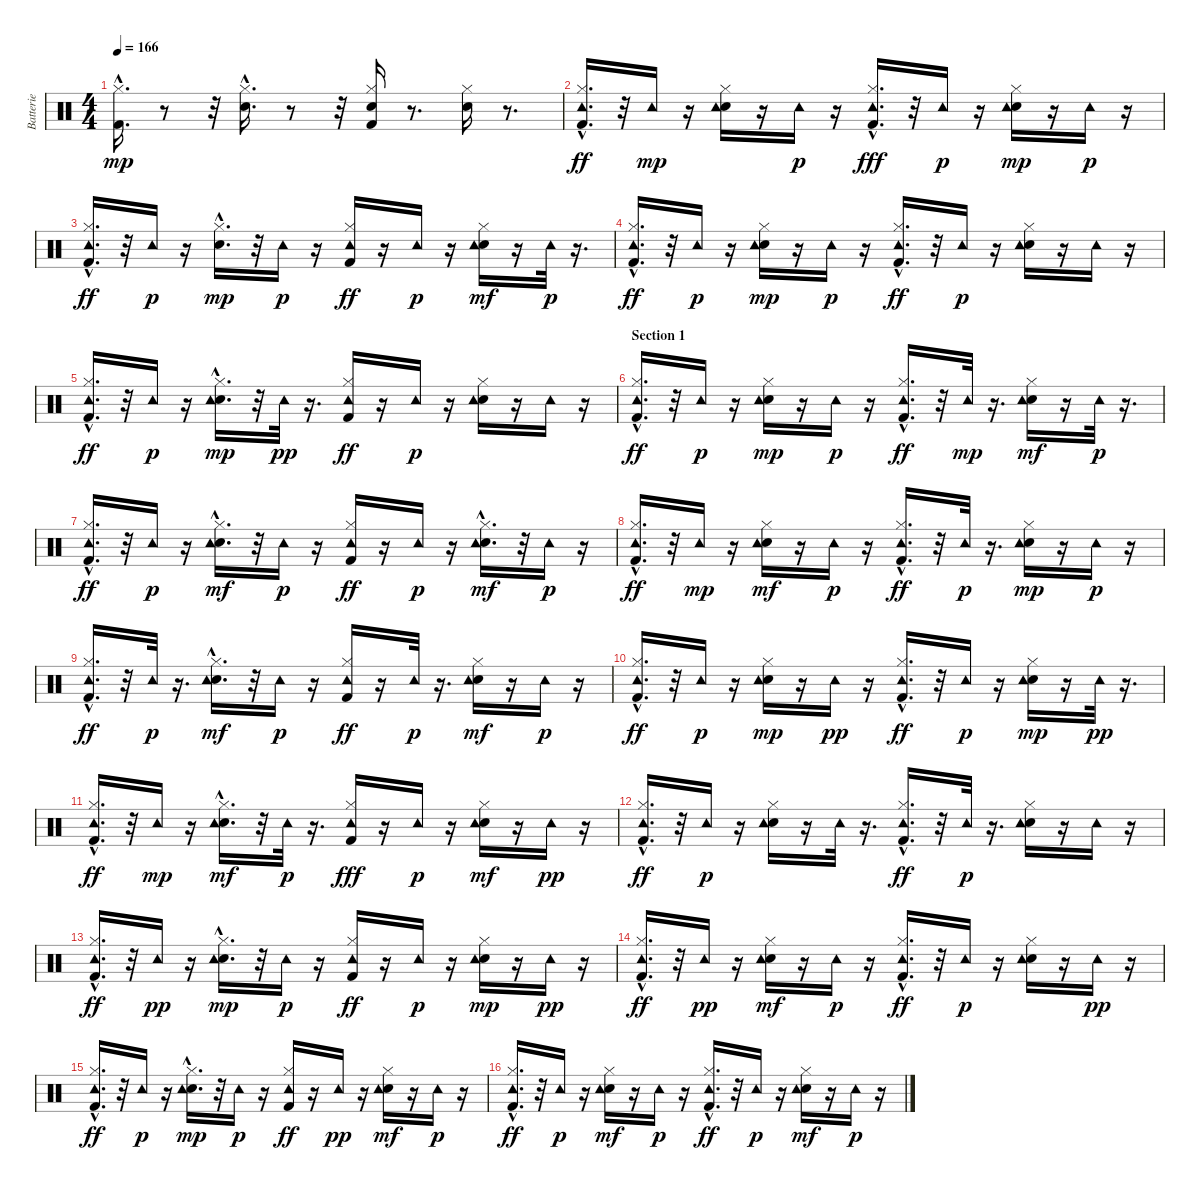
\track ("Batterie" "Batterie") {instrument percussion}
\staff {score}
\articulation defaults
\ts (4 4)
\tempo 166
\clef neutral
\ks c
("Kick (hit) 2"{hac} "Hi-Hat (closed)").16{d dy mp} r.8 r.32 ("Electric Snare (hit)" "Hi-Hat (closed)"{hac}).16{d} r.8 r.32 ("Kick (hit) 2" "Electric Snare (hit)" "Hi-Hat (closed)").16 r.8{d} ("Electric Snare (hit)" "Hi-Hat (closed)").16 r.8{d} |
("Kick (hit) 2"{hac} "Hi-Hat (closed)"{hac} "Tambourine (hit)").16{d dy ff} r.32 "Tambourine (hit)".16{dy mp} r.16 ("Electric Snare (hit)" "Hi-Hat (closed)" "Tambourine (hit)").16 r.16 "Tambourine (hit)".16{dy p} r.16 ("Kick (hit) 2"{hac} "Hi-Hat (closed)" "Tambourine (hit)").16{d dy fff} r.32 "Tambourine (hit)".16{dy p} r.16 ("Electric Snare (hit)" "Hi-Hat (closed)" "Tambourine (hit)").16{dy mp} r.16 "Tambourine (hit)".16{dy p} r.16 |
("Kick (hit) 2"{hac} "Hi-Hat (closed)" "Tambourine (hit)").16{d dy ff} r.32 "Tambourine (hit)".16{dy p} r.16 ("Electric Snare (hit)" "Hi-Hat (closed)"{hac}).16{d dy mp} r.32 "Tambourine (hit)".16{dy p} r.16 ("Kick (hit) 2" "Hi-Hat (closed)" "Tambourine (hit)").16{dy ff} r.16 "Tambourine (hit)".16{dy p} r.16 ("Electric Snare (hit)" "Hi-Hat (closed)" "Tambourine (hit)").16{dy mf} r.16 "Tambourine (hit)".32{dy p} r.16{d} |
("Kick (hit) 2"{hac} "Hi-Hat (closed)"{hac} "Tambourine (hit)").16{d dy ff} r.32 "Tambourine (hit)".16{dy p} r.16 ("Electric Snare (hit)" "Hi-Hat (closed)" "Tambourine (hit)").16{dy mp} r.16 "Tambourine (hit)".16{dy p} r.16 ("Kick (hit) 2"{hac} "Hi-Hat (closed)" "Tambourine (hit)").16{d dy ff} r.32 "Tambourine (hit)".16{dy p} r.16 ("Electric Snare (hit)" "Hi-Hat (closed)" "Tambourine (hit)").16 r.16 "Tambourine (hit)".16 r.16 |
("Kick (hit) 2"{hac} "Hi-Hat (closed)" "Tambourine (hit)").16{d dy ff} r.32 "Tambourine (hit)".16{dy p} r.16 ("Electric Snare (hit)" "Hi-Hat (closed)"{hac} "Tambourine (hit)").16{d dy mp} r.32 "Tambourine (hit)".32{dy pp} r.16{d} ("Kick (hit) 2" "Hi-Hat (closed)" "Tambourine (hit)").16{dy ff} r.16 "Tambourine (hit)".16{dy p} r.16 ("Electric Snare (hit)" "Hi-Hat (closed)" "Tambourine (hit)").16 r.16 "Tambourine (hit)".16 r.16 |
\section ("" "Section 1")
("Kick (hit) 2"{hac} "Hi-Hat (closed)"{hac} "Tambourine (hit)").16{d dy ff} r.32 "Tambourine (hit)".16{dy p} r.16 ("Electric Snare (hit)" "Hi-Hat (closed)" "Tambourine (hit)").16{dy mp} r.16 "Tambourine (hit)".16{dy p} r.16 ("Kick (hit) 2"{hac} "Hi-Hat (closed)" "Tambourine (hit)").16{d dy ff} r.32 "Tambourine (hit)".32{dy mp} r.16{d} ("Electric Snare (hit)" "Hi-Hat (closed)" "Tambourine (hit)").16{dy mf} r.16 "Tambourine (hit)".32{dy p} r.16{d} |
("Kick (hit) 2"{hac} "Hi-Hat (closed)" "Tambourine (hit)").16{d dy ff} r.32 "Tambourine (hit)".16{dy p} r.16 ("Electric Snare (hit)" "Hi-Hat (closed)"{hac} "Tambourine (hit)").16{d dy mf} r.32 "Tambourine (hit)".16{dy p} r.16 ("Kick (hit) 2" "Hi-Hat (closed)" "Tambourine (hit)").16{dy ff} r.16 "Tambourine (hit)".16{dy p} r.16 ("Electric Snare (hit)"{hac} "Hi-Hat (closed)" "Tambourine (hit)").16{d dy mf} r.32 "Tambourine (hit)".16{dy p} r.16 |
("Kick (hit) 2"{hac} "Hi-Hat (closed)"{hac} "Tambourine (hit)").16{d dy ff} r.32 "Tambourine (hit)".16{dy mp} r.16 ("Electric Snare (hit)" "Hi-Hat (closed)" "Tambourine (hit)").16{dy mf} r.16 "Tambourine (hit)".16{dy p} r.16 ("Kick (hit) 2"{hac} "Hi-Hat (closed)" "Tambourine (hit)").16{d dy ff} r.32 "Tambourine (hit)".32{dy p} r.16{d} ("Electric Snare (hit)" "Hi-Hat (closed)" "Tambourine (hit)").16{dy mp} r.16 "Tambourine (hit)".16{dy p} r.16 |
("Kick (hit) 2"{hac} "Hi-Hat (closed)" "Tambourine (hit)").16{d dy ff} r.32 "Tambourine (hit)".32{dy p} r.16{d} ("Electric Snare (hit)" "Hi-Hat (closed)"{hac} "Tambourine (hit)").16{d dy mf} r.32 "Tambourine (hit)".16{dy p} r.16 ("Kick (hit) 2" "Hi-Hat (closed)" "Tambourine (hit)").16{dy ff} r.16 "Tambourine (hit)".32{dy p} r.16{d} ("Electric Snare (hit)" "Hi-Hat (closed)" "Tambourine (hit)").16{dy mf} r.16 "Tambourine (hit)".16{dy p} r.16 |
("Kick (hit) 2"{hac} "Hi-Hat (closed)"{hac} "Tambourine (hit)").16{d dy ff} r.32 "Tambourine (hit)".16{dy p} r.16 ("Electric Snare (hit)" "Hi-Hat (closed)" "Tambourine (hit)").16{dy mp} r.16 "Tambourine (hit)".16{dy pp} r.16 ("Kick (hit) 2"{hac} "Hi-Hat (closed)" "Tambourine (hit)").16{d dy ff} r.32 "Tambourine (hit)".16{dy p} r.16 ("Electric Snare (hit)" "Hi-Hat (closed)" "Tambourine (hit)").16{dy mp} r.16 "Tambourine (hit)".32{dy pp} r.16{d} |
("Kick (hit) 2"{hac} "Hi-Hat (closed)" "Tambourine (hit)").16{d dy ff} r.32 "Tambourine (hit)".16{dy mp} r.16 ("Electric Snare (hit)" "Hi-Hat (closed)"{hac} "Tambourine (hit)").16{d dy mf} r.32 "Tambourine (hit)".32{dy p} r.16{d} ("Kick (hit) 2" "Hi-Hat (closed)" "Tambourine (hit)").16{dy fff} r.16 "Tambourine (hit)".16{dy p} r.16 ("Electric Snare (hit)" "Hi-Hat (closed)" "Tambourine (hit)").16{dy mf} r.16 "Tambourine (hit)".16{dy pp} r.16 |
("Kick (hit) 2"{hac} "Hi-Hat (closed)"{hac} "Tambourine (hit)").16{d dy ff} r.32 "Tambourine (hit)".16{dy p} r.16 ("Electric Snare (hit)" "Hi-Hat (closed)" "Tambourine (hit)").16 r.16 "Tambourine (hit)".32 r.16{d} ("Kick (hit) 2"{hac} "Hi-Hat (closed)" "Tambourine (hit)").16{d dy ff} r.32 "Tambourine (hit)".32{dy p} r.16{d} ("Electric Snare (hit)" "Hi-Hat (closed)" "Tambourine (hit)").16 r.16 "Tambourine (hit)".16 r.16 |
("Kick (hit) 2"{hac} "Hi-Hat (closed)" "Tambourine (hit)").16{d dy ff} r.32 "Tambourine (hit)".16{dy pp} r.16 ("Electric Snare (hit)" "Hi-Hat (closed)"{hac} "Tambourine (hit)").16{d dy mp} r.32 "Tambourine (hit)".16{dy p} r.16 ("Kick (hit) 2" "Hi-Hat (closed)" "Tambourine (hit)").16{dy ff} r.16 "Tambourine (hit)".16{dy p} r.16 ("Electric Snare (hit)" "Hi-Hat (closed)" "Tambourine (hit)").16{dy mp} r.16 "Tambourine (hit)".16{dy pp} r.16 |
("Kick (hit) 2"{hac} "Hi-Hat (closed)"{hac} "Tambourine (hit)").16{d dy ff} r.32 "Tambourine (hit)".16{dy pp} r.16 ("Electric Snare (hit)" "Hi-Hat (closed)" "Tambourine (hit)").16{dy mf} r.16 "Tambourine (hit)".16{dy p} r.16 ("Kick (hit) 2"{hac} "Hi-Hat (closed)" "Tambourine (hit)").16{d dy ff} r.32 "Tambourine (hit)".16{dy p} r.16 ("Electric Snare (hit)" "Hi-Hat (closed)" "Tambourine (hit)").16 r.16 "Tambourine (hit)".16{dy pp} r.16 |
("Kick (hit) 2"{hac} "Hi-Hat (closed)" "Tambourine (hit)").16{d dy ff} r.32 "Tambourine (hit)".16{dy p} r.16 ("Electric Snare (hit)" "Hi-Hat (closed)"{hac} "Tambourine (hit)").16{d dy mp} r.32 "Tambourine (hit)".16{dy p} r.16 ("Kick (hit) 2" "Hi-Hat (closed)" "Tambourine (hit)").16{dy ff} r.16 "Tambourine (hit)".16{dy pp} r.16 ("Electric Snare (hit)" "Hi-Hat (closed)" "Tambourine (hit)").16{dy mf} r.16 "Tambourine (hit)".16{dy p} r.16 |
("Kick (hit) 2"{hac} "Hi-Hat (closed)"{hac} "Tambourine (hit)").16{d dy ff} r.32 "Tambourine (hit)".16{dy p} r.16 ("Electric Snare (hit)" "Hi-Hat (closed)" "Tambourine (hit)").16{dy mf} r.16 "Tambourine (hit)".16{dy p} r.16 ("Kick (hit) 2"{hac} "Hi-Hat (closed)" "Tambourine (hit)").16{d dy ff} r.32 "Tambourine (hit)".16{dy p} r.16 ("Electric Snare (hit)" "Hi-Hat (closed)" "Tambourine (hit)").16{dy mf} r.16 "Tambourine (hit)".16{dy p} r.16
